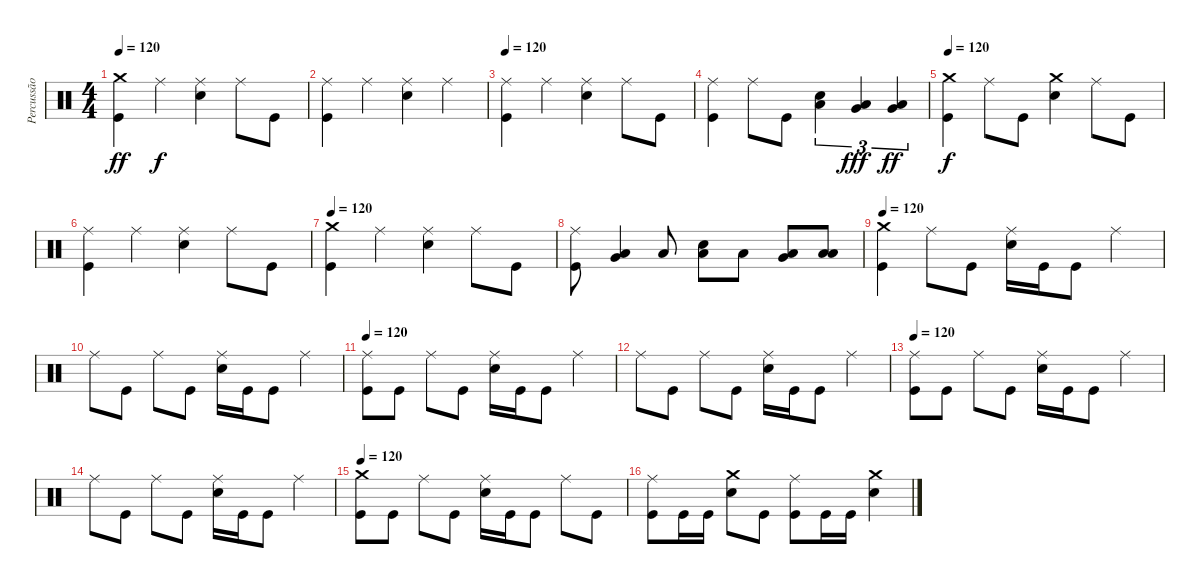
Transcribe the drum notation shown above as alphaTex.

\track ("Percussão" "Percussão") {instrument percussion}
\staff {score}
\articulation defaults
\ts (4 4)
\tempo 120
\clef neutral
\ks c
("Crash medium (hit)" "Kick (hit)").4{dy ff} "Ride (middle)".4{dy f} ("Electric Snare (hit)" "Ride (middle)").4 "Ride (middle)".8 "Kick (hit)".8 |
("Kick (hit)" "Ride (middle)").4 "Ride (middle)".4 ("Electric Snare (hit)" "Ride (middle)").4 "Ride (middle)".4 |
\tempo 120
("Kick (hit)" "Ride (middle)").4 "Ride (middle)".4 ("Electric Snare (hit)" "Ride (middle)").4 "Ride (middle)".8 "Kick (hit)".8 |
("Kick (hit)" "Ride (middle)").4 "Ride (middle)".8 "Kick (hit)".8 ("Electric Snare (hit)" "Low Tom (hit)").4{tu (3 2)} ("Very Low Tom (hit)" "Low Floor Tom (hit)").4{tu (3 2) dy fff} ("Very Low Tom (hit)" "Low Floor Tom (hit)").4{tu (3 2) dy ff} |
\tempo 120
("Kick (hit)" "Crash medium (hit)").4{dy f} "Ride (middle)".8 "Kick (hit)".8 ("Electric Snare (hit)" "Crash medium (hit)").4 "Ride (middle)".8 "Kick (hit)".8 |
("Kick (hit)" "Ride (middle)").4 "Ride (middle)".4 ("Electric Snare (hit)" "Ride (middle)").4 "Ride (middle)".8 "Kick (hit)".8 |
\tempo 120
("Kick (hit)" "Crash medium (hit)").4 "Ride (middle)".4 ("Electric Snare (hit)" "Ride (middle)").4 "Ride (middle)".8 "Kick (hit)".8 |
("Kick (hit)" "Ride (middle)").8 ("Low Floor Tom (hit)" "Very Low Tom (hit)").4 "Low Floor Tom (hit)".8 ("Low Floor Tom (hit)" "Electric Snare (hit)").8 "Low Floor Tom (hit)".8 ("Low Floor Tom (hit)" "Very Low Tom (hit)").8 ("Low Floor Tom (hit)" "Low Floor Tom (hit)").8 |
\tempo 120
("Kick (hit)" "Crash medium (hit)").4 "Ride (middle)".8 "Kick (hit)".8 ("Electric Snare (hit)" "Ride (middle)").16 "Kick (hit)".16 "Kick (hit)".8 "Ride (middle)".4 |
"Ride (middle)".8 "Kick (hit)".8 "Ride (middle)".8 "Kick (hit)".8 ("Electric Snare (hit)" "Ride (middle)").16 "Kick (hit)".16 "Kick (hit)".8 "Ride (middle)".4 |
\tempo 120
("Kick (hit)" "Ride (middle)").8 "Kick (hit)".8 "Ride (middle)".8 "Kick (hit)".8 ("Electric Snare (hit)" "Ride (middle)").16 "Kick (hit)".16 "Kick (hit)".8 "Ride (middle)".4 |
"Ride (middle)".8 "Kick (hit)".8 "Ride (middle)".8 "Kick (hit)".8 ("Electric Snare (hit)" "Ride (middle)").16 "Kick (hit)".16 "Kick (hit)".8 "Ride (middle)".4 |
\tempo 120
("Kick (hit)" "Ride (middle)").8 "Kick (hit)".8 "Ride (middle)".8 "Kick (hit)".8 ("Electric Snare (hit)" "Ride (middle)").16 "Kick (hit)".16 "Kick (hit)".8 "Ride (middle)".4 |
"Ride (middle)".8 "Kick (hit)".8 "Ride (middle)".8 "Kick (hit)".8 ("Electric Snare (hit)" "Ride (middle)").16 "Kick (hit)".16 "Kick (hit)".8 "Ride (middle)".4 |
\tempo 120
("Kick (hit)" "Crash medium (hit)").8 "Kick (hit)".8 "Ride (middle)".8 "Kick (hit)".8 ("Electric Snare (hit)" "Ride (middle)").16 "Kick (hit)".16 "Kick (hit)".8 "Ride (middle)".8 "Kick (hit)".8 |
("Kick (hit)" "Ride (middle)").8 "Kick (hit)".16 "Kick (hit)".16 ("Electric Snare (hit)" "Crash medium (hit)").8 "Kick (hit)".8 ("Kick (hit)" "Ride (middle)").8 "Kick (hit)".16 "Kick (hit)".16 ("Electric Snare (hit)" "Crash medium (hit)").4
